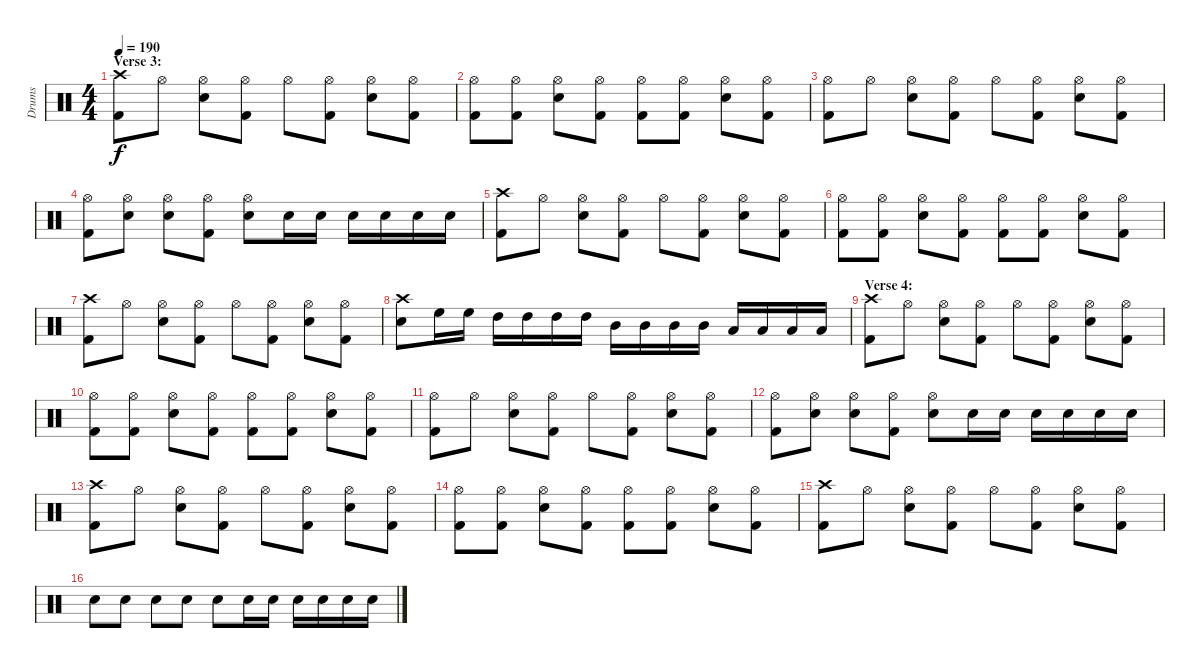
\track ("Drums" "Drums") {instrument percussion}
\staff {score}
\articulation defaults
\ts (4 4)
\section ("" "Verse 3:")
\tempo 190
\clef neutral
\ks c
("Crash high (hit)" "Kick (hit) 2").8{dy f} "Hi-Hat (open)".8 ("Hi-Hat (open)" "Electric Snare (hit)").8 ("Hi-Hat (open)" "Kick (hit) 2").8 "Hi-Hat (open)".8 ("Hi-Hat (open)" "Kick (hit) 2").8 ("Hi-Hat (open)" "Electric Snare (hit)").8 ("Hi-Hat (open)" "Kick (hit) 2").8 |
("Hi-Hat (open)" "Kick (hit) 2").8 ("Hi-Hat (open)" "Kick (hit) 2").8 ("Hi-Hat (open)" "Electric Snare (hit)").8 ("Hi-Hat (open)" "Kick (hit) 2").8 ("Hi-Hat (open)" "Kick (hit) 2").8 ("Hi-Hat (open)" "Kick (hit) 2").8 ("Hi-Hat (open)" "Electric Snare (hit)").8 ("Hi-Hat (open)" "Kick (hit) 2").8 |
("Hi-Hat (open)" "Kick (hit) 2").8 "Hi-Hat (open)".8 ("Hi-Hat (open)" "Electric Snare (hit)").8 ("Hi-Hat (open)" "Kick (hit) 2").8 "Hi-Hat (open)".8 ("Hi-Hat (open)" "Kick (hit) 2").8 ("Hi-Hat (open)" "Electric Snare (hit)").8 ("Hi-Hat (open)" "Kick (hit) 2").8 |
("Hi-Hat (open)" "Kick (hit) 2").8 ("Hi-Hat (open)" "Electric Snare (hit)").8 ("Hi-Hat (open)" "Electric Snare (hit)").8 ("Hi-Hat (open)" "Kick (hit) 2").8 ("Hi-Hat (open)" "Electric Snare (hit)").8 "Electric Snare (hit)".16 "Electric Snare (hit)".16 "Electric Snare (hit)".16 "Electric Snare (hit)".16 "Electric Snare (hit)".16 "Electric Snare (hit)".16 |
("Crash high (hit)" "Kick (hit) 2").8 "Hi-Hat (open)".8 ("Hi-Hat (open)" "Electric Snare (hit)").8 ("Hi-Hat (open)" "Kick (hit) 2").8 "Hi-Hat (open)".8 ("Hi-Hat (open)" "Kick (hit) 2").8 ("Hi-Hat (open)" "Electric Snare (hit)").8 ("Hi-Hat (open)" "Kick (hit) 2").8 |
("Hi-Hat (open)" "Kick (hit) 2").8 ("Hi-Hat (open)" "Kick (hit) 2").8 ("Hi-Hat (open)" "Electric Snare (hit)").8 ("Hi-Hat (open)" "Kick (hit) 2").8 ("Hi-Hat (open)" "Kick (hit) 2").8 ("Hi-Hat (open)" "Kick (hit) 2").8 ("Hi-Hat (open)" "Electric Snare (hit)").8 ("Hi-Hat (open)" "Kick (hit) 2").8 |
("Crash high (hit)" "Kick (hit) 2").8 "Hi-Hat (open)".8 ("Hi-Hat (open)" "Electric Snare (hit)").8 ("Hi-Hat (open)" "Kick (hit) 2").8 "Hi-Hat (open)".8 ("Hi-Hat (open)" "Kick (hit) 2").8 ("Hi-Hat (open)" "Electric Snare (hit)").8 ("Hi-Hat (open)" "Kick (hit) 2").8 |
("Crash high (hit)" "Electric Snare (hit)").8 "High Floor Tom (hit)".16 "High Floor Tom (hit)".16 "High Tom (hit)".16 "High Tom (hit)".16 "High Tom (hit)".16 "High Tom (hit)".16 "Mid Tom (hit)".16 "Mid Tom (hit)".16 "Mid Tom (hit)".16 "Mid Tom (hit)".16 "Low Tom (hit)".16 "Low Tom (hit)".16 "Low Tom (hit)".16 "Low Tom (hit)".16 |
\section ("" "Verse 4:")
("Crash high (hit)" "Kick (hit) 2").8 "Hi-Hat (open)".8 ("Hi-Hat (open)" "Electric Snare (hit)").8 ("Hi-Hat (open)" "Kick (hit) 2").8 "Hi-Hat (open)".8 ("Hi-Hat (open)" "Kick (hit) 2").8 ("Hi-Hat (open)" "Electric Snare (hit)").8 ("Hi-Hat (open)" "Kick (hit) 2").8 |
("Hi-Hat (open)" "Kick (hit) 2").8 ("Hi-Hat (open)" "Kick (hit) 2").8 ("Hi-Hat (open)" "Electric Snare (hit)").8 ("Hi-Hat (open)" "Kick (hit) 2").8 ("Hi-Hat (open)" "Kick (hit) 2").8 ("Hi-Hat (open)" "Kick (hit) 2").8 ("Hi-Hat (open)" "Electric Snare (hit)").8 ("Hi-Hat (open)" "Kick (hit) 2").8 |
("Hi-Hat (open)" "Kick (hit) 2").8 "Hi-Hat (open)".8 ("Hi-Hat (open)" "Electric Snare (hit)").8 ("Hi-Hat (open)" "Kick (hit) 2").8 "Hi-Hat (open)".8 ("Hi-Hat (open)" "Kick (hit) 2").8 ("Hi-Hat (open)" "Electric Snare (hit)").8 ("Hi-Hat (open)" "Kick (hit) 2").8 |
("Hi-Hat (open)" "Kick (hit) 2").8 ("Hi-Hat (open)" "Electric Snare (hit)").8 ("Hi-Hat (open)" "Electric Snare (hit)").8 ("Hi-Hat (open)" "Kick (hit) 2").8 ("Hi-Hat (open)" "Electric Snare (hit)").8 "Electric Snare (hit)".16 "Electric Snare (hit)".16 "Electric Snare (hit)".16 "Electric Snare (hit)".16 "Electric Snare (hit)".16 "Electric Snare (hit)".16 |
("Crash high (hit)" "Kick (hit) 2").8 "Hi-Hat (open)".8 ("Hi-Hat (open)" "Electric Snare (hit)").8 ("Hi-Hat (open)" "Kick (hit) 2").8 "Hi-Hat (open)".8 ("Hi-Hat (open)" "Kick (hit) 2").8 ("Hi-Hat (open)" "Electric Snare (hit)").8 ("Hi-Hat (open)" "Kick (hit) 2").8 |
("Hi-Hat (open)" "Kick (hit) 2").8 ("Hi-Hat (open)" "Kick (hit) 2").8 ("Hi-Hat (open)" "Electric Snare (hit)").8 ("Hi-Hat (open)" "Kick (hit) 2").8 ("Hi-Hat (open)" "Kick (hit) 2").8 ("Hi-Hat (open)" "Kick (hit) 2").8 ("Hi-Hat (open)" "Electric Snare (hit)").8 ("Hi-Hat (open)" "Kick (hit) 2").8 |
("Crash high (hit)" "Kick (hit) 2").8 "Hi-Hat (open)".8 ("Hi-Hat (open)" "Electric Snare (hit)").8 ("Hi-Hat (open)" "Kick (hit) 2").8 "Hi-Hat (open)".8 ("Hi-Hat (open)" "Kick (hit) 2").8 ("Hi-Hat (open)" "Electric Snare (hit)").8 ("Hi-Hat (open)" "Kick (hit) 2").8 |
"Electric Snare (hit)".8 "Electric Snare (hit)".8 "Electric Snare (hit)".8 "Electric Snare (hit)".8 "Electric Snare (hit)".8 "Electric Snare (hit)".16 "Electric Snare (hit)".16 "Electric Snare (hit)".16 "Electric Snare (hit)".16 "Electric Snare (hit)".16 "Electric Snare (hit)".16
